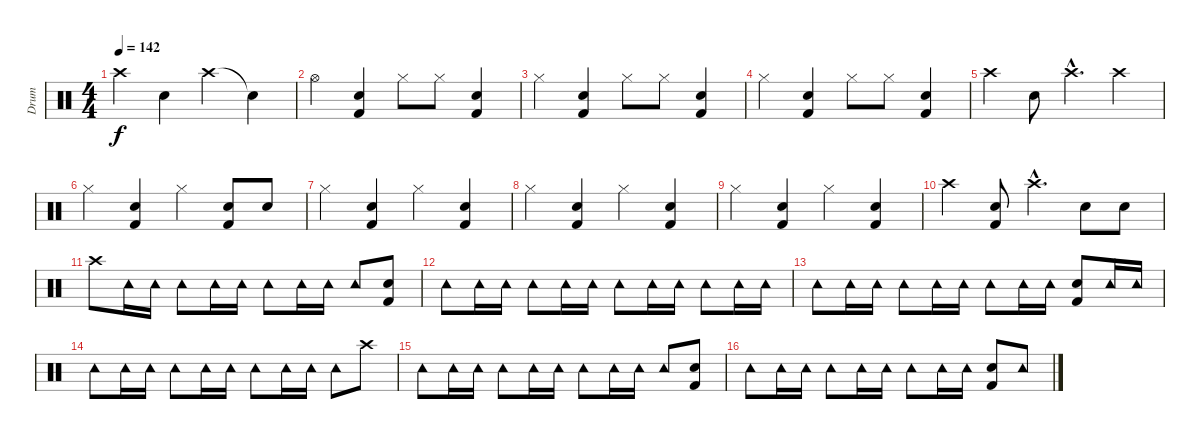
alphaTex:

\track ("Drum" "Drum") {instrument percussion}
\staff {score}
\articulation defaults
\ts (4 4)
\tempo 142
\clef neutral
\ks c "Crash high (hit)".4{dy f} "Electric Snare (hit)".4 "Crash high (hit)".4 "Snare (hit)"{t}.4
|
"Hi-Hat (open)".4 ("Electric Snare (hit)" "Kick (hit) 2").4 "Hi-Hat (closed)".8 "Hi-Hat (closed)".8 ("Electric Snare (hit)" "Kick (hit) 2").4 |
"Hi-Hat (closed)".4 ("Electric Snare (hit)" "Kick (hit) 2").4 "Hi-Hat (closed)".8 "Hi-Hat (closed)".8 ("Electric Snare (hit)" "Kick (hit) 2").4 |
"Hi-Hat (closed)".4 ("Electric Snare (hit)" "Kick (hit) 2").4 "Hi-Hat (closed)".8 "Hi-Hat (closed)".8 ("Electric Snare (hit)" "Kick (hit) 2").4 |
"Crash high (hit)".4 "Electric Snare (hit)".8 "Crash high (hit)"{hac}.4{d} "Crash high (hit)".4 |
"Hi-Hat (closed)".4 ("Electric Snare (hit)" "Kick (hit) 2").4 "Hi-Hat (closed)".4 ("Electric Snare (hit)" "Kick (hit) 2").8 "Electric Snare (hit)".8 |
"Hi-Hat (closed)".4 ("Electric Snare (hit)" "Kick (hit) 2").4 "Hi-Hat (closed)".4 ("Electric Snare (hit)" "Kick (hit) 2").4 |
"Hi-Hat (closed)".4 ("Electric Snare (hit)" "Kick (hit) 2").4 "Hi-Hat (closed)".4 ("Electric Snare (hit)" "Kick (hit) 2").4 |
"Hi-Hat (closed)".4 ("Electric Snare (hit)" "Kick (hit) 2").4 "Hi-Hat (closed)".4 ("Electric Snare (hit)" "Kick (hit) 2").4 |
"Crash high (hit)".4 ("Electric Snare (hit)" "Kick (hit) 2").8 "Crash high (hit)"{hac}.4{d} "Electric Snare (hit)".8 "Electric Snare (hit)".8 |
"Crash high (hit)".8 "Tambourine (hit)".16 "Tambourine (hit)".16 "Tambourine (hit)".8 "Tambourine (hit)".16 "Tambourine (hit)".16 "Tambourine (hit)".8 "Tambourine (hit)".16 "Tambourine (hit)".16 "Tambourine (hit)".8 ("Electric Snare (hit)" "Kick (hit) 2").8 |
"Tambourine (hit)".8 "Tambourine (hit)".16 "Tambourine (hit)".16 "Tambourine (hit)".8 "Tambourine (hit)".16 "Tambourine (hit)".16 "Tambourine (hit)".8 "Tambourine (hit)".16 "Tambourine (hit)".16 "Tambourine (hit)".8 "Tambourine (hit)".16 "Tambourine (hit)".16 |
"Tambourine (hit)".8 "Tambourine (hit)".16 "Tambourine (hit)".16 "Tambourine (hit)".8 "Tambourine (hit)".16 "Tambourine (hit)".16 "Tambourine (hit)".8 "Tambourine (hit)".16 "Tambourine (hit)".16 ("Electric Snare (hit)" "Kick (hit) 2").8 "Tambourine (hit)".16 "Tambourine (hit)".16 |
"Tambourine (hit)".8 "Tambourine (hit)".16 "Tambourine (hit)".16 "Tambourine (hit)".8 "Tambourine (hit)".16 "Tambourine (hit)".16 "Tambourine (hit)".8 "Tambourine (hit)".16 "Tambourine (hit)".16 "Tambourine (hit)".8 "Crash high (hit)".8 |
"Tambourine (hit)".8 "Tambourine (hit)".16 "Tambourine (hit)".16 "Tambourine (hit)".8 "Tambourine (hit)".16 "Tambourine (hit)".16 "Tambourine (hit)".8 "Tambourine (hit)".16 "Tambourine (hit)".16 "Tambourine (hit)".8 ("Electric Snare (hit)" "Kick (hit) 2").8 |
"Tambourine (hit)".8 "Tambourine (hit)".16 "Tambourine (hit)".16 "Tambourine (hit)".8 "Tambourine (hit)".16 "Tambourine (hit)".16 "Tambourine (hit)".8 "Tambourine (hit)".16 "Tambourine (hit)".16 ("Electric Snare (hit)" "Kick (hit) 2").8 "Tambourine (hit)".8
